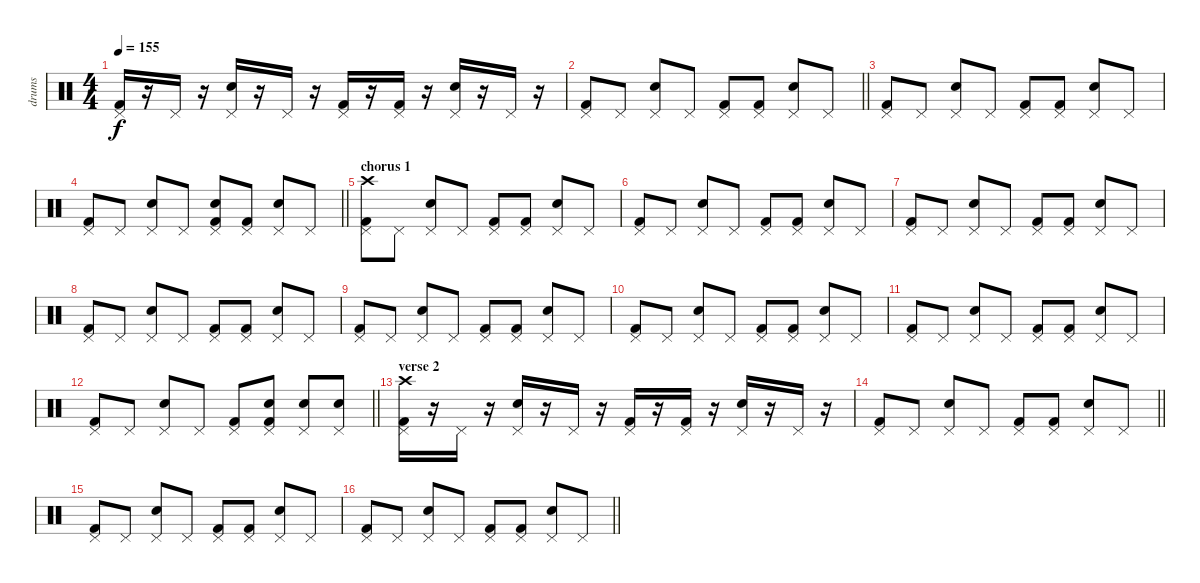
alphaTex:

\track ("drums" "drums") {instrument percussion}
\staff {score}
\articulation defaults
\ts (4 4)
\tempo 155
\clef neutral
\ks c
("Kick (hit) 2" "Pedal Hi-Hat (hit)").16{dy f} r.16 "Pedal Hi-Hat (hit)".16 r.16 ("Electric Snare (hit)" "Pedal Hi-Hat (hit)").16 r.16 "Pedal Hi-Hat (hit)".16 r.16 ("Kick (hit) 2" "Pedal Hi-Hat (hit)").16 r.16 ("Kick (hit) 2" "Pedal Hi-Hat (hit)").16 r.16 ("Electric Snare (hit)" "Pedal Hi-Hat (hit)").16 r.16 "Pedal Hi-Hat (hit)".16 r.16 |
\barLineRight lightlight
("Kick (hit) 2" "Pedal Hi-Hat (hit)").8 "Pedal Hi-Hat (hit)".8 ("Electric Snare (hit)" "Pedal Hi-Hat (hit)").8 "Pedal Hi-Hat (hit)".8 ("Kick (hit) 2" "Pedal Hi-Hat (hit)").8 ("Kick (hit) 2" "Pedal Hi-Hat (hit)").8 ("Electric Snare (hit)" "Pedal Hi-Hat (hit)").8 "Pedal Hi-Hat (hit)".8 |
("Kick (hit) 2" "Pedal Hi-Hat (hit)").8 "Pedal Hi-Hat (hit)".8 ("Electric Snare (hit)" "Pedal Hi-Hat (hit)").8 "Pedal Hi-Hat (hit)".8 ("Kick (hit) 2" "Pedal Hi-Hat (hit)").8 ("Kick (hit) 2" "Pedal Hi-Hat (hit)").8 ("Electric Snare (hit)" "Pedal Hi-Hat (hit)").8 "Pedal Hi-Hat (hit)".8 |
\barLineRight lightlight
("Kick (hit) 2" "Pedal Hi-Hat (hit)").8 "Pedal Hi-Hat (hit)".8 ("Electric Snare (hit)" "Pedal Hi-Hat (hit)").8 "Pedal Hi-Hat (hit)".8 ("Kick (hit) 2" "Electric Snare (hit)" "Pedal Hi-Hat (hit)").8 ("Kick (hit) 2" "Pedal Hi-Hat (hit)").8 ("Electric Snare (hit)" "Pedal Hi-Hat (hit)").8 "Pedal Hi-Hat (hit)".8 |
\section ("" "chorus 1")
("Kick (hit) 2" "Pedal Hi-Hat (hit)" "Crash high (hit)").8 "Pedal Hi-Hat (hit)".8 ("Electric Snare (hit)" "Pedal Hi-Hat (hit)").8 "Pedal Hi-Hat (hit)".8 ("Kick (hit) 2" "Pedal Hi-Hat (hit)").8 ("Kick (hit) 2" "Pedal Hi-Hat (hit)").8 ("Electric Snare (hit)" "Pedal Hi-Hat (hit)").8 "Pedal Hi-Hat (hit)".8 |
("Kick (hit) 2" "Pedal Hi-Hat (hit)").8 "Pedal Hi-Hat (hit)".8 ("Electric Snare (hit)" "Pedal Hi-Hat (hit)").8 "Pedal Hi-Hat (hit)".8 ("Kick (hit) 2" "Pedal Hi-Hat (hit)").8 ("Kick (hit) 2" "Pedal Hi-Hat (hit)").8 ("Electric Snare (hit)" "Pedal Hi-Hat (hit)").8 "Pedal Hi-Hat (hit)".8 |
("Kick (hit) 2" "Pedal Hi-Hat (hit)").8 "Pedal Hi-Hat (hit)".8 ("Electric Snare (hit)" "Pedal Hi-Hat (hit)").8 "Pedal Hi-Hat (hit)".8 ("Kick (hit) 2" "Pedal Hi-Hat (hit)").8 ("Kick (hit) 2" "Pedal Hi-Hat (hit)").8 ("Electric Snare (hit)" "Pedal Hi-Hat (hit)").8 "Pedal Hi-Hat (hit)".8 |
("Kick (hit) 2" "Pedal Hi-Hat (hit)").8 "Pedal Hi-Hat (hit)".8 ("Electric Snare (hit)" "Pedal Hi-Hat (hit)").8 "Pedal Hi-Hat (hit)".8 ("Kick (hit) 2" "Pedal Hi-Hat (hit)").8 ("Kick (hit) 2" "Pedal Hi-Hat (hit)").8 ("Electric Snare (hit)" "Pedal Hi-Hat (hit)").8 "Pedal Hi-Hat (hit)".8 |
("Kick (hit) 2" "Pedal Hi-Hat (hit)").8 "Pedal Hi-Hat (hit)".8 ("Electric Snare (hit)" "Pedal Hi-Hat (hit)").8 "Pedal Hi-Hat (hit)".8 ("Kick (hit) 2" "Pedal Hi-Hat (hit)").8 ("Kick (hit) 2" "Pedal Hi-Hat (hit)").8 ("Electric Snare (hit)" "Pedal Hi-Hat (hit)").8 "Pedal Hi-Hat (hit)".8 |
("Kick (hit) 2" "Pedal Hi-Hat (hit)").8 "Pedal Hi-Hat (hit)".8 ("Electric Snare (hit)" "Pedal Hi-Hat (hit)").8 "Pedal Hi-Hat (hit)".8 ("Kick (hit) 2" "Pedal Hi-Hat (hit)").8 ("Kick (hit) 2" "Pedal Hi-Hat (hit)").8 ("Electric Snare (hit)" "Pedal Hi-Hat (hit)").8 "Pedal Hi-Hat (hit)".8 |
("Kick (hit) 2" "Pedal Hi-Hat (hit)").8 "Pedal Hi-Hat (hit)".8 ("Electric Snare (hit)" "Pedal Hi-Hat (hit)").8 "Pedal Hi-Hat (hit)".8 ("Kick (hit) 2" "Pedal Hi-Hat (hit)").8 ("Kick (hit) 2" "Pedal Hi-Hat (hit)").8 ("Electric Snare (hit)" "Pedal Hi-Hat (hit)").8 "Pedal Hi-Hat (hit)".8 |
\barLineRight lightlight
("Kick (hit) 2" "Pedal Hi-Hat (hit)").8 "Pedal Hi-Hat (hit)".8 ("Electric Snare (hit)" "Pedal Hi-Hat (hit)").8 "Pedal Hi-Hat (hit)".8 ("Kick (hit) 2" "Pedal Hi-Hat (hit)").8 ("Kick (hit) 2" "Electric Snare (hit)" "Pedal Hi-Hat (hit)").8 ("Electric Snare (hit)" "Pedal Hi-Hat (hit)").8 ("Electric Snare (hit)" "Pedal Hi-Hat (hit)").8 |
\section ("" "verse 2")
("Kick (hit) 2" "Pedal Hi-Hat (hit)" "Crash high (hit)").16 r.16 "Pedal Hi-Hat (hit)".16 r.16 ("Electric Snare (hit)" "Pedal Hi-Hat (hit)").16 r.16 "Pedal Hi-Hat (hit)".16 r.16 ("Kick (hit) 2" "Pedal Hi-Hat (hit)").16 r.16 ("Kick (hit) 2" "Pedal Hi-Hat (hit)").16 r.16 ("Electric Snare (hit)" "Pedal Hi-Hat (hit)").16 r.16 "Pedal Hi-Hat (hit)".16 r.16 |
\barLineRight lightlight
("Kick (hit) 2" "Pedal Hi-Hat (hit)").8 "Pedal Hi-Hat (hit)".8 ("Electric Snare (hit)" "Pedal Hi-Hat (hit)").8 "Pedal Hi-Hat (hit)".8 ("Kick (hit) 2" "Pedal Hi-Hat (hit)").8 ("Kick (hit) 2" "Pedal Hi-Hat (hit)").8 ("Electric Snare (hit)" "Pedal Hi-Hat (hit)").8 "Pedal Hi-Hat (hit)".8 |
("Kick (hit) 2" "Pedal Hi-Hat (hit)").8 "Pedal Hi-Hat (hit)".8 ("Electric Snare (hit)" "Pedal Hi-Hat (hit)").8 "Pedal Hi-Hat (hit)".8 ("Kick (hit) 2" "Pedal Hi-Hat (hit)").8 ("Kick (hit) 2" "Pedal Hi-Hat (hit)").8 ("Electric Snare (hit)" "Pedal Hi-Hat (hit)").8 "Pedal Hi-Hat (hit)".8 |
\barLineRight lightlight
("Kick (hit) 2" "Pedal Hi-Hat (hit)").8 "Pedal Hi-Hat (hit)".8 ("Electric Snare (hit)" "Pedal Hi-Hat (hit)").8 "Pedal Hi-Hat (hit)".8 ("Kick (hit) 2" "Pedal Hi-Hat (hit)").8 ("Kick (hit) 2" "Pedal Hi-Hat (hit)").8 ("Electric Snare (hit)" "Pedal Hi-Hat (hit)").8 "Pedal Hi-Hat (hit)".8
